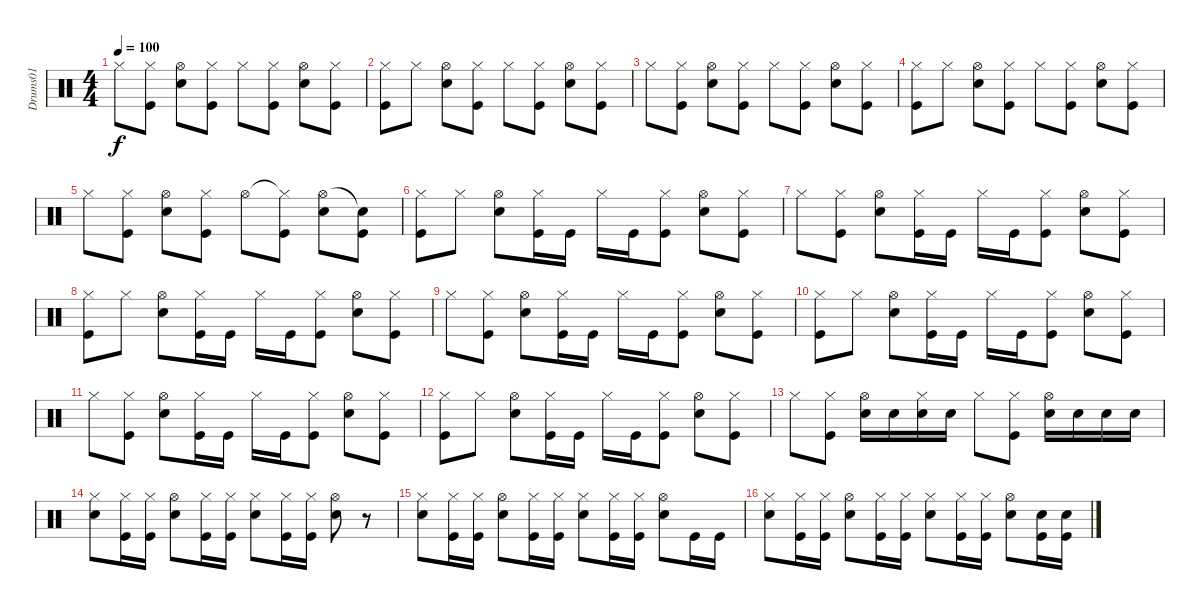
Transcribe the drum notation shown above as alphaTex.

\track ("Drums01" "Drums01") {instrument percussion}
\staff {score}
\articulation defaults
\ts (4 4)
\tempo 100
\clef neutral
\ks c "Hi-Hat (closed)".8{dy f}
("Hi-Hat (closed)" "Kick (hit)").8 ("Hi-Hat (open)" "Snare (hit) 2").8 ("Hi-Hat (closed)" "Kick (hit)").8 "Hi-Hat (closed)".8 ("Hi-Hat (closed)" "Kick (hit)").8 ("Hi-Hat (open)" "Snare (hit) 2").8 ("Hi-Hat (closed)" "Kick (hit)").8 |
("Hi-Hat (closed)" "Kick (hit)").8 "Hi-Hat (closed)".8 ("Hi-Hat (open)" "Snare (hit) 2").8 ("Hi-Hat (closed)" "Kick (hit)").8 "Hi-Hat (closed)".8 ("Hi-Hat (closed)" "Kick (hit)").8 ("Hi-Hat (open)" "Snare (hit) 2").8 ("Hi-Hat (closed)" "Kick (hit)").8 |
"Hi-Hat (closed)".8 ("Hi-Hat (closed)" "Kick (hit)").8 ("Hi-Hat (open)" "Snare (hit) 2").8 ("Hi-Hat (closed)" "Kick (hit)").8 "Hi-Hat (closed)".8 ("Hi-Hat (closed)" "Kick (hit)").8 ("Hi-Hat (open)" "Snare (hit) 2").8 ("Hi-Hat (closed)" "Kick (hit)").8 |
("Hi-Hat (closed)" "Kick (hit)").8 "Hi-Hat (closed)".8 ("Hi-Hat (open)" "Snare (hit) 2").8 ("Hi-Hat (closed)" "Kick (hit)").8 "Hi-Hat (closed)".8 ("Hi-Hat (closed)" "Kick (hit)").8 ("Hi-Hat (open)" "Snare (hit) 2").8 ("Hi-Hat (closed)" "Kick (hit)").8 |
"Hi-Hat (closed)".8 ("Hi-Hat (closed)" "Kick (hit)").8 ("Hi-Hat (open)" "Snare (hit) 2").8 ("Hi-Hat (closed)" "Kick (hit)").8 "Hi-Hat (open)".8 ("Hi-Hat (closed)"{t} "Kick (hit)").8 ("Hi-Hat (open)" "Snare (hit) 2").8 ("Snare (hit)"{t} "Kick (hit)").8 |
("Hi-Hat (closed)" "Kick (hit)").8 "Hi-Hat (closed)".8 ("Hi-Hat (open)" "Snare (hit) 2").8 ("Hi-Hat (closed)" "Kick (hit)").16 "Kick (hit)".16 "Hi-Hat (closed)".16 "Kick (hit)".16 ("Hi-Hat (closed)" "Kick (hit)").8 ("Hi-Hat (open)" "Snare (hit) 2").8 ("Hi-Hat (closed)" "Kick (hit)").8 |
"Hi-Hat (closed)".8 ("Hi-Hat (closed)" "Kick (hit)").8 ("Hi-Hat (open)" "Snare (hit) 2").8 ("Hi-Hat (closed)" "Kick (hit)").16 "Kick (hit)".16 "Hi-Hat (closed)".16 "Kick (hit)".16 ("Hi-Hat (closed)" "Kick (hit)").8 ("Hi-Hat (open)" "Snare (hit) 2").8 ("Hi-Hat (closed)" "Kick (hit)").8 |
("Hi-Hat (closed)" "Kick (hit)").8 "Hi-Hat (closed)".8 ("Hi-Hat (open)" "Snare (hit) 2").8 ("Hi-Hat (closed)" "Kick (hit)").16 "Kick (hit)".16 "Hi-Hat (closed)".16 "Kick (hit)".16 ("Hi-Hat (closed)" "Kick (hit)").8 ("Hi-Hat (open)" "Snare (hit) 2").8 ("Hi-Hat (closed)" "Kick (hit)").8 |
"Hi-Hat (closed)".8 ("Hi-Hat (closed)" "Kick (hit)").8 ("Hi-Hat (open)" "Snare (hit) 2").8 ("Hi-Hat (closed)" "Kick (hit)").16 "Kick (hit)".16 "Hi-Hat (closed)".16 "Kick (hit)".16 ("Hi-Hat (closed)" "Kick (hit)").8 ("Hi-Hat (open)" "Snare (hit) 2").8 ("Hi-Hat (closed)" "Kick (hit)").8 |
("Hi-Hat (closed)" "Kick (hit)").8 "Hi-Hat (closed)".8 ("Hi-Hat (open)" "Snare (hit) 2").8 ("Hi-Hat (closed)" "Kick (hit)").16 "Kick (hit)".16 "Hi-Hat (closed)".16 "Kick (hit)".16 ("Hi-Hat (closed)" "Kick (hit)").8 ("Hi-Hat (open)" "Snare (hit) 2").8 ("Hi-Hat (closed)" "Kick (hit)").8 |
"Hi-Hat (closed)".8 ("Hi-Hat (closed)" "Kick (hit)").8 ("Hi-Hat (open)" "Snare (hit) 2").8 ("Hi-Hat (closed)" "Kick (hit)").16 "Kick (hit)".16 "Hi-Hat (closed)".16 "Kick (hit)".16 ("Hi-Hat (closed)" "Kick (hit)").8 ("Hi-Hat (open)" "Snare (hit) 2").8 ("Hi-Hat (closed)" "Kick (hit)").8 |
("Hi-Hat (closed)" "Kick (hit)").8 "Hi-Hat (closed)".8 ("Hi-Hat (open)" "Snare (hit) 2").8 ("Hi-Hat (closed)" "Kick (hit)").16 "Kick (hit)".16 "Hi-Hat (closed)".16 "Kick (hit)".16 ("Hi-Hat (closed)" "Kick (hit)").8 ("Hi-Hat (open)" "Snare (hit) 2").8 ("Hi-Hat (closed)" "Kick (hit)").8 |
"Hi-Hat (closed)".8 ("Hi-Hat (closed)" "Kick (hit)").8 ("Hi-Hat (open)" "Snare (hit) 2").16 "Snare (hit) 2".16 ("Hi-Hat (closed)" "Snare (hit) 2").16 "Snare (hit) 2".16 "Hi-Hat (closed)".8 ("Hi-Hat (closed)" "Kick (hit)").8 ("Hi-Hat (open)" "Snare (hit) 2").16 "Snare (hit) 2".16 "Snare (hit) 2".16 "Snare (hit) 2".16 |
("Hi-Hat (closed)" "Snare (hit) 2").8 ("Hi-Hat (closed)" "Kick (hit)").16 ("Hi-Hat (closed)" "Kick (hit)").16 ("Hi-Hat (open)" "Snare (hit) 2").8 ("Hi-Hat (closed)" "Kick (hit)").16 ("Hi-Hat (closed)" "Kick (hit)").16 ("Hi-Hat (closed)" "Snare (hit) 2").8 ("Hi-Hat (closed)" "Kick (hit)").16 ("Hi-Hat (closed)" "Kick (hit)").16 ("Hi-Hat (open)" "Snare (hit) 2").8 r.8 |
("Hi-Hat (closed)" "Snare (hit) 2").8 ("Hi-Hat (closed)" "Kick (hit)").16 ("Hi-Hat (closed)" "Kick (hit)").16 ("Hi-Hat (open)" "Snare (hit) 2").8 ("Hi-Hat (closed)" "Kick (hit)").16 ("Hi-Hat (closed)" "Kick (hit)").16 ("Hi-Hat (closed)" "Snare (hit) 2").8 ("Hi-Hat (closed)" "Kick (hit)").16 ("Hi-Hat (closed)" "Kick (hit)").16 ("Hi-Hat (open)" "Snare (hit) 2").8 "Kick (hit)".16 "Kick (hit)".16 |
("Hi-Hat (closed)" "Snare (hit) 2").8 ("Hi-Hat (closed)" "Kick (hit)").16 ("Hi-Hat (closed)" "Kick (hit)").16 ("Hi-Hat (open)" "Snare (hit) 2").8 ("Hi-Hat (closed)" "Kick (hit)").16 ("Hi-Hat (closed)" "Kick (hit)").16 ("Hi-Hat (closed)" "Snare (hit) 2").8 ("Hi-Hat (closed)" "Kick (hit)").16 ("Hi-Hat (closed)" "Kick (hit)").16 ("Hi-Hat (open)" "Snare (hit) 2").8 ("Snare (hit) 2" "Kick (hit)").16 ("Snare (hit) 2" "Kick (hit)").16
